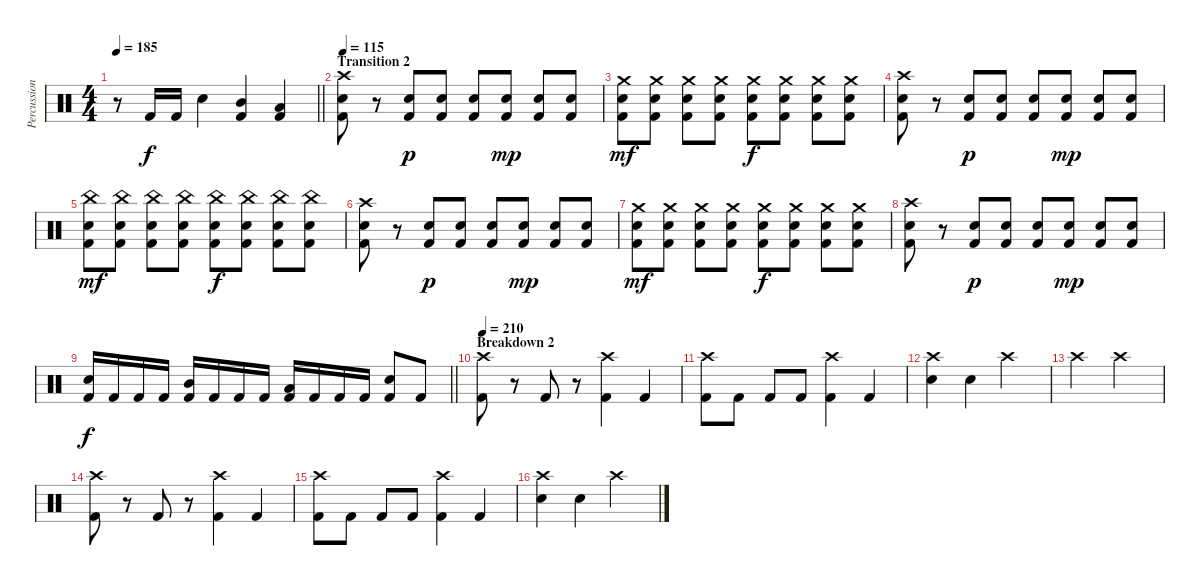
\track ("Percussion" "Percussion") {instrument percussion}
\staff {score}
\articulation defaults
\ts (4 4)
\tempo 185
\clef neutral
\barLineRight lightlight
\ks c
r.8{dy f} "Kick (hit) 2".16 "Kick (hit) 2".16 "Electric Snare (hit)".4 ("Mid Tom (hit)" "Kick (hit) 2").4 ("Low Tom (hit)" "Kick (hit) 2").4 |
\section ("" "Transition 2")
\tempo 115
("Crash high (hit)" "Electric Snare (hit)" "Kick (hit) 2").8 r.8 ("Electric Snare (hit)" "Kick (hit) 2").8{dy p} ("Electric Snare (hit)" "Kick (hit) 2").8 ("Electric Snare (hit)" "Kick (hit) 2").8 ("Electric Snare (hit)" "Kick (hit) 2").8{dy mp} ("Electric Snare (hit)" "Kick (hit) 2").8 ("Electric Snare (hit)" "Kick (hit) 2").8 |
("Crash medium (hit)" "Electric Snare (hit)" "Kick (hit) 2").8{dy mf} ("Crash medium (hit)" "Electric Snare (hit)" "Kick (hit) 2").8 ("Crash medium (hit)" "Electric Snare (hit)" "Kick (hit) 2").8 ("Crash medium (hit)" "Electric Snare (hit)" "Kick (hit) 2").8 ("Crash medium (hit)" "Electric Snare (hit)" "Kick (hit) 2").8{dy f} ("Crash medium (hit)" "Electric Snare (hit)" "Kick (hit) 2").8 ("Crash medium (hit)" "Electric Snare (hit)" "Kick (hit) 2").8 ("Crash medium (hit)" "Electric Snare (hit)" "Kick (hit) 2").8 |
("Crash high (hit)" "Electric Snare (hit)" "Kick (hit) 2").8 r.8 ("Electric Snare (hit)" "Kick (hit) 2").8{dy p} ("Electric Snare (hit)" "Kick (hit) 2").8 ("Electric Snare (hit)" "Kick (hit) 2").8 ("Electric Snare (hit)" "Kick (hit) 2").8{dy mp} ("Electric Snare (hit)" "Kick (hit) 2").8 ("Electric Snare (hit)" "Kick (hit) 2").8 |
("China (hit)" "Electric Snare (hit)" "Kick (hit) 2").8{dy mf} ("China (hit)" "Electric Snare (hit)" "Kick (hit) 2").8 ("China (hit)" "Electric Snare (hit)" "Kick (hit) 2").8 ("China (hit)" "Electric Snare (hit)" "Kick (hit) 2").8 ("China (hit)" "Electric Snare (hit)" "Kick (hit) 2").8{dy f} ("China (hit)" "Electric Snare (hit)" "Kick (hit) 2").8 ("China (hit)" "Electric Snare (hit)" "Kick (hit) 2").8 ("China (hit)" "Electric Snare (hit)" "Kick (hit) 2").8 |
("Crash high (hit)" "Electric Snare (hit)" "Kick (hit) 2").8 r.8 ("Electric Snare (hit)" "Kick (hit) 2").8{dy p} ("Electric Snare (hit)" "Kick (hit) 2").8 ("Electric Snare (hit)" "Kick (hit) 2").8 ("Electric Snare (hit)" "Kick (hit) 2").8{dy mp} ("Electric Snare (hit)" "Kick (hit) 2").8 ("Electric Snare (hit)" "Kick (hit) 2").8 |
("Crash medium (hit)" "Electric Snare (hit)" "Kick (hit) 2").8{dy mf} ("Crash medium (hit)" "Electric Snare (hit)" "Kick (hit) 2").8 ("Crash medium (hit)" "Electric Snare (hit)" "Kick (hit) 2").8 ("Crash medium (hit)" "Electric Snare (hit)" "Kick (hit) 2").8 ("Crash medium (hit)" "Electric Snare (hit)" "Kick (hit) 2").8{dy f} ("Crash medium (hit)" "Electric Snare (hit)" "Kick (hit) 2").8 ("Crash medium (hit)" "Electric Snare (hit)" "Kick (hit) 2").8 ("Crash medium (hit)" "Electric Snare (hit)" "Kick (hit) 2").8 |
("Crash high (hit)" "Electric Snare (hit)" "Kick (hit) 2").8 r.8 ("Electric Snare (hit)" "Kick (hit) 2").8{dy p} ("Electric Snare (hit)" "Kick (hit) 2").8 ("Electric Snare (hit)" "Kick (hit) 2").8 ("Electric Snare (hit)" "Kick (hit) 2").8{dy mp} ("Electric Snare (hit)" "Kick (hit) 2").8 ("Electric Snare (hit)" "Kick (hit) 2").8 |
\barLineRight lightlight
("Electric Snare (hit)" "Kick (hit) 2").16{dy f} "Kick (hit) 2".16 "Kick (hit) 2".16 "Kick (hit) 2".16 ("Mid Tom (hit)" "Kick (hit) 2").16 "Kick (hit) 2".16 "Kick (hit) 2".16 "Kick (hit) 2".16 ("Low Tom (hit)" "Kick (hit) 2").16 "Kick (hit) 2".16 "Kick (hit) 2".16 "Kick (hit) 2".16 ("Electric Snare (hit)" "Kick (hit) 2").8 "Kick (hit) 2".8 |
\section ("" "Breakdown 2")
\tempo 210
("Crash high (hit)" "Kick (hit) 2").8 r.8 "Kick (hit) 2".8 r.8 ("Crash high (hit)" "Kick (hit) 2").4 "Kick (hit) 2".4 |
("Crash high (hit)" "Kick (hit) 2").8 "Kick (hit) 2".8 "Kick (hit) 2".8 "Kick (hit) 2".8 ("Crash high (hit)" "Kick (hit) 2").4 "Kick (hit) 2".4 |
("Crash high (hit)" "Electric Snare (hit)").4 "Electric Snare (hit)".4 "Crash high (hit)".2 |
"Crash high (hit)".2 "Crash high (hit)".2 |
("Crash high (hit)" "Kick (hit) 2").8 r.8 "Kick (hit) 2".8 r.8 ("Crash high (hit)" "Kick (hit) 2").4 "Kick (hit) 2".4 |
("Crash high (hit)" "Kick (hit) 2").8 "Kick (hit) 2".8 "Kick (hit) 2".8 "Kick (hit) 2".8 ("Crash high (hit)" "Kick (hit) 2").4 "Kick (hit) 2".4 |
("Crash high (hit)" "Electric Snare (hit)").4 "Electric Snare (hit)".4 "Crash high (hit)".2
